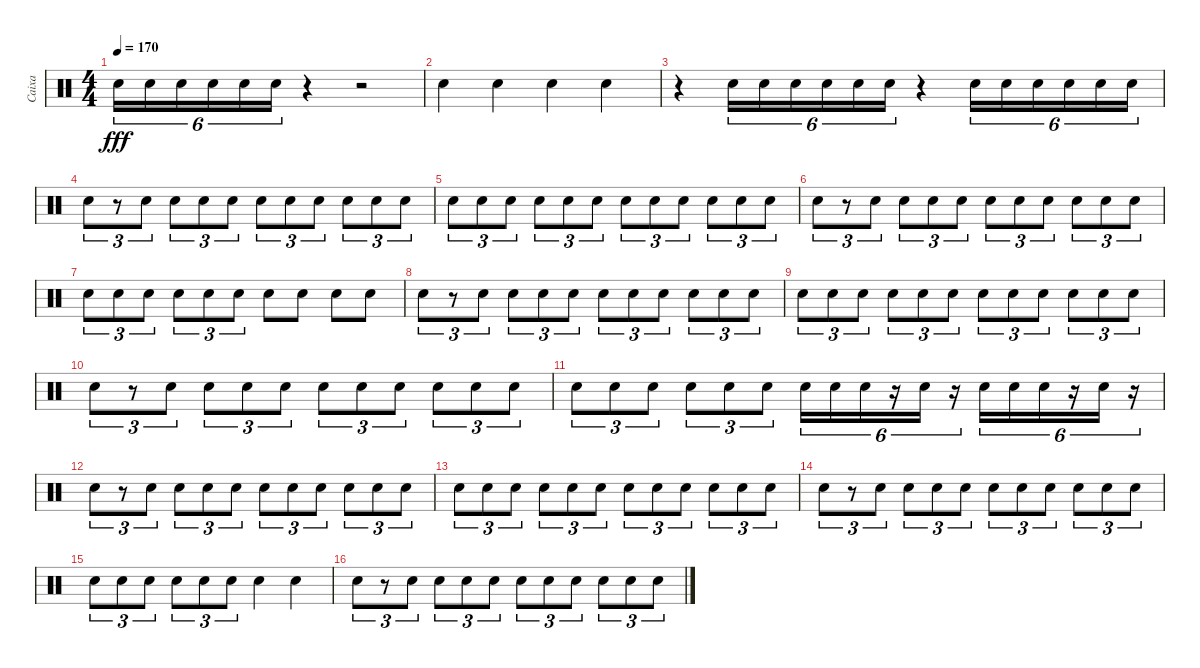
\track ("Caixa" "Caixa") {instrument percussion}
\staff {score}
\articulation defaults
\ts (4 4)
\tempo 170
\clef neutral
\ks c "Electric Snare (hit)".16{tu (6 4) dy fff} "Electric Snare (hit)".16{tu (6 4)} "Electric Snare (hit)".16{tu (6 4)} "Electric Snare (hit)".16{tu (6 4)} "Electric Snare (hit)".16{tu (6 4)} "Electric Snare (hit)".16{tu (6 4)}
r.4 r.2 |
"Electric Snare (hit)".4 "Electric Snare (hit)".4 "Electric Snare (hit)".4 "Electric Snare (hit)".4 |
r.4 "Electric Snare (hit)".16{tu (6 4)} "Electric Snare (hit)".16{tu (6 4)} "Electric Snare (hit)".16{tu (6 4)} "Electric Snare (hit)".16{tu (6 4)} "Electric Snare (hit)".16{tu (6 4)} "Electric Snare (hit)".16{tu (6 4)} r.4 "Electric Snare (hit)".16{tu (6 4)} "Electric Snare (hit)".16{tu (6 4)} "Electric Snare (hit)".16{tu (6 4)} "Electric Snare (hit)".16{tu (6 4)} "Electric Snare (hit)".16{tu (6 4)} "Electric Snare (hit)".16{tu (6 4)} |
"Electric Snare (hit)".8{tu (3 2)} r.8{tu (3 2)} "Electric Snare (hit)".8{tu (3 2)} "Electric Snare (hit)".8{tu (3 2)} "Electric Snare (hit)".8{tu (3 2)} "Electric Snare (hit)".8{tu (3 2)} "Electric Snare (hit)".8{tu (3 2)} "Electric Snare (hit)".8{tu (3 2)} "Electric Snare (hit)".8{tu (3 2)} "Electric Snare (hit)".8{tu (3 2)} "Electric Snare (hit)".8{tu (3 2)} "Electric Snare (hit)".8{tu (3 2)} |
"Electric Snare (hit)".8{tu (3 2)} "Electric Snare (hit)".8{tu (3 2)} "Electric Snare (hit)".8{tu (3 2)} "Electric Snare (hit)".8{tu (3 2)} "Electric Snare (hit)".8{tu (3 2)} "Electric Snare (hit)".8{tu (3 2)} "Electric Snare (hit)".8{tu (3 2)} "Electric Snare (hit)".8{tu (3 2)} "Electric Snare (hit)".8{tu (3 2)} "Electric Snare (hit)".8{tu (3 2)} "Electric Snare (hit)".8{tu (3 2)} "Electric Snare (hit)".8{tu (3 2)} |
"Electric Snare (hit)".8{tu (3 2)} r.8{tu (3 2)} "Electric Snare (hit)".8{tu (3 2)} "Electric Snare (hit)".8{tu (3 2)} "Electric Snare (hit)".8{tu (3 2)} "Electric Snare (hit)".8{tu (3 2)} "Electric Snare (hit)".8{tu (3 2)} "Electric Snare (hit)".8{tu (3 2)} "Electric Snare (hit)".8{tu (3 2)} "Electric Snare (hit)".8{tu (3 2)} "Electric Snare (hit)".8{tu (3 2)} "Electric Snare (hit)".8{tu (3 2)} |
"Electric Snare (hit)".8{tu (3 2)} "Electric Snare (hit)".8{tu (3 2)} "Electric Snare (hit)".8{tu (3 2)} "Electric Snare (hit)".8{tu (3 2)} "Electric Snare (hit)".8{tu (3 2)} "Electric Snare (hit)".8{tu (3 2)} "Electric Snare (hit)".8 "Electric Snare (hit)".8 "Electric Snare (hit)".8 "Electric Snare (hit)".8 |
"Electric Snare (hit)".8{tu (3 2)} r.8{tu (3 2)} "Electric Snare (hit)".8{tu (3 2)} "Electric Snare (hit)".8{tu (3 2)} "Electric Snare (hit)".8{tu (3 2)} "Electric Snare (hit)".8{tu (3 2)} "Electric Snare (hit)".8{tu (3 2)} "Electric Snare (hit)".8{tu (3 2)} "Electric Snare (hit)".8{tu (3 2)} "Electric Snare (hit)".8{tu (3 2)} "Electric Snare (hit)".8{tu (3 2)} "Electric Snare (hit)".8{tu (3 2)} |
"Electric Snare (hit)".8{tu (3 2)} "Electric Snare (hit)".8{tu (3 2)} "Electric Snare (hit)".8{tu (3 2)} "Electric Snare (hit)".8{tu (3 2)} "Electric Snare (hit)".8{tu (3 2)} "Electric Snare (hit)".8{tu (3 2)} "Electric Snare (hit)".8{tu (3 2)} "Electric Snare (hit)".8{tu (3 2)} "Electric Snare (hit)".8{tu (3 2)} "Electric Snare (hit)".8{tu (3 2)} "Electric Snare (hit)".8{tu (3 2)} "Electric Snare (hit)".8{tu (3 2)} |
"Electric Snare (hit)".8{tu (3 2)} r.8{tu (3 2)} "Electric Snare (hit)".8{tu (3 2)} "Electric Snare (hit)".8{tu (3 2)} "Electric Snare (hit)".8{tu (3 2)} "Electric Snare (hit)".8{tu (3 2)} "Electric Snare (hit)".8{tu (3 2)} "Electric Snare (hit)".8{tu (3 2)} "Electric Snare (hit)".8{tu (3 2)} "Electric Snare (hit)".8{tu (3 2)} "Electric Snare (hit)".8{tu (3 2)} "Electric Snare (hit)".8{tu (3 2)} |
"Electric Snare (hit)".8{tu (3 2)} "Electric Snare (hit)".8{tu (3 2)} "Electric Snare (hit)".8{tu (3 2)} "Electric Snare (hit)".8{tu (3 2)} "Electric Snare (hit)".8{tu (3 2)} "Electric Snare (hit)".8{tu (3 2)} "Electric Snare (hit)".16{tu (6 4)} "Electric Snare (hit)".16{tu (6 4)} "Electric Snare (hit)".16{tu (6 4)} r.16{tu (6 4)} "Electric Snare (hit)".16{tu (6 4)} r.16{tu (6 4)} "Electric Snare (hit)".16{tu (6 4)} "Electric Snare (hit)".16{tu (6 4)} "Electric Snare (hit)".16{tu (6 4)} r.16{tu (6 4)} "Electric Snare (hit)".16{tu (6 4)} r.16{tu (6 4)} |
"Electric Snare (hit)".8{tu (3 2)} r.8{tu (3 2)} "Electric Snare (hit)".8{tu (3 2)} "Electric Snare (hit)".8{tu (3 2)} "Electric Snare (hit)".8{tu (3 2)} "Electric Snare (hit)".8{tu (3 2)} "Electric Snare (hit)".8{tu (3 2)} "Electric Snare (hit)".8{tu (3 2)} "Electric Snare (hit)".8{tu (3 2)} "Electric Snare (hit)".8{tu (3 2)} "Electric Snare (hit)".8{tu (3 2)} "Electric Snare (hit)".8{tu (3 2)} |
"Electric Snare (hit)".8{tu (3 2)} "Electric Snare (hit)".8{tu (3 2)} "Electric Snare (hit)".8{tu (3 2)} "Electric Snare (hit)".8{tu (3 2)} "Electric Snare (hit)".8{tu (3 2)} "Electric Snare (hit)".8{tu (3 2)} "Electric Snare (hit)".8{tu (3 2)} "Electric Snare (hit)".8{tu (3 2)} "Electric Snare (hit)".8{tu (3 2)} "Electric Snare (hit)".8{tu (3 2)} "Electric Snare (hit)".8{tu (3 2)} "Electric Snare (hit)".8{tu (3 2)} |
"Electric Snare (hit)".8{tu (3 2)} r.8{tu (3 2)} "Electric Snare (hit)".8{tu (3 2)} "Electric Snare (hit)".8{tu (3 2)} "Electric Snare (hit)".8{tu (3 2)} "Electric Snare (hit)".8{tu (3 2)} "Electric Snare (hit)".8{tu (3 2)} "Electric Snare (hit)".8{tu (3 2)} "Electric Snare (hit)".8{tu (3 2)} "Electric Snare (hit)".8{tu (3 2)} "Electric Snare (hit)".8{tu (3 2)} "Electric Snare (hit)".8{tu (3 2)} |
"Electric Snare (hit)".8{tu (3 2)} "Electric Snare (hit)".8{tu (3 2)} "Electric Snare (hit)".8{tu (3 2)} "Electric Snare (hit)".8{tu (3 2)} "Electric Snare (hit)".8{tu (3 2)} "Electric Snare (hit)".8{tu (3 2)} "Electric Snare (hit)".4 "Electric Snare (hit)".4 |
"Electric Snare (hit)".8{tu (3 2)} r.8{tu (3 2)} "Electric Snare (hit)".8{tu (3 2)} "Electric Snare (hit)".8{tu (3 2)} "Electric Snare (hit)".8{tu (3 2)} "Electric Snare (hit)".8{tu (3 2)} "Electric Snare (hit)".8{tu (3 2)} "Electric Snare (hit)".8{tu (3 2)} "Electric Snare (hit)".8{tu (3 2)} "Electric Snare (hit)".8{tu (3 2)} "Electric Snare (hit)".8{tu (3 2)} "Electric Snare (hit)".8{tu (3 2)}
